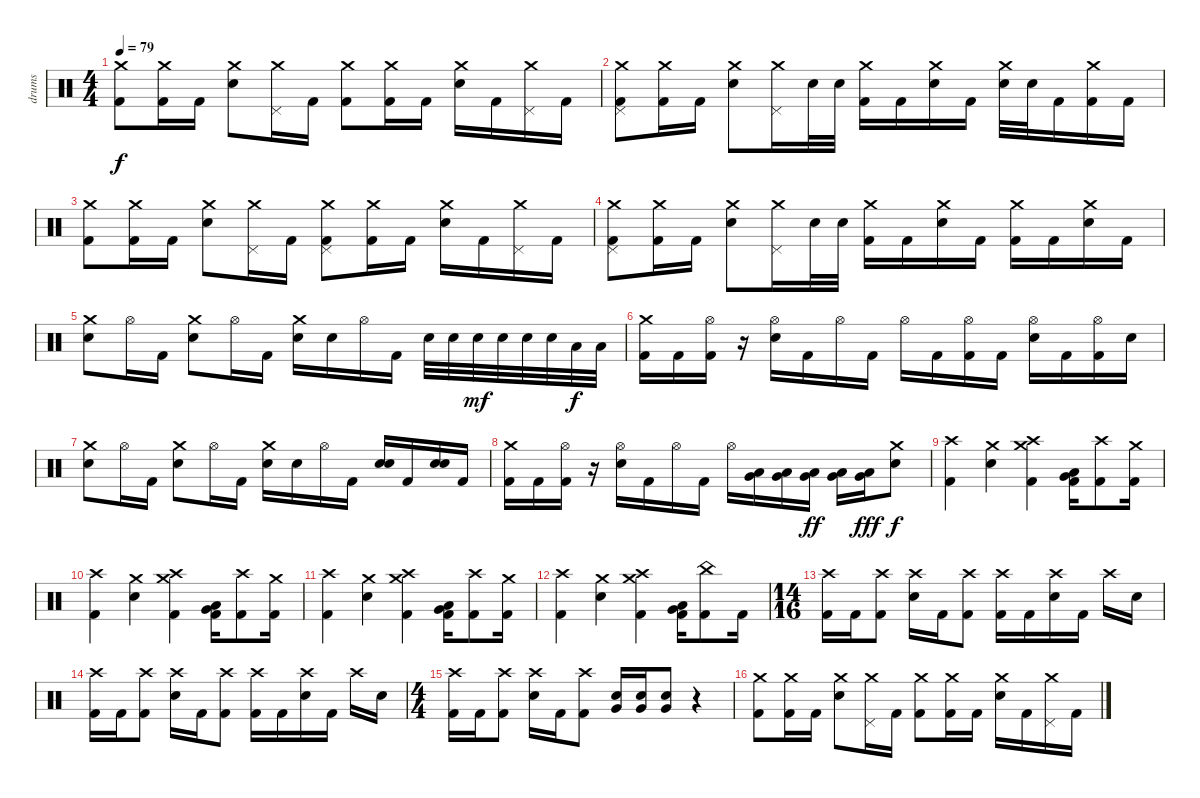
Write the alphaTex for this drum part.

\track ("drums" "drums") {instrument percussion}
\staff {score}
\articulation defaults
\ts (4 4)
\tempo 79
\clef neutral
\ks c
("Crash medium (hit)" "Kick (hit) 2").8{dy f} ("Crash medium (hit)" "Kick (hit) 2").16 "Kick (hit) 2".16 ("Crash medium (hit)" "Electric Snare (hit)").8 ("Crash medium (hit)" "Pedal Hi-Hat (hit)").16 "Kick (hit) 2".16 ("Crash medium (hit)" "Kick (hit) 2").8 ("Crash medium (hit)" "Kick (hit) 2").16 "Kick (hit) 2".16 ("Crash medium (hit)" "Electric Snare (hit)").16 "Kick (hit) 2".16 ("Crash medium (hit)" "Pedal Hi-Hat (hit)").16 "Kick (hit) 2".16 |
("Crash medium (hit)" "Pedal Hi-Hat (hit)" "Kick (hit) 2").8 ("Crash medium (hit)" "Kick (hit) 2").16 "Kick (hit) 2".16 ("Crash medium (hit)" "Electric Snare (hit)").8 ("Crash medium (hit)" "Pedal Hi-Hat (hit)").16 "Electric Snare (hit)".32 "Electric Snare (hit)".32 ("Crash medium (hit)" "Kick (hit) 2").16 "Kick (hit) 2".16 ("Crash medium (hit)" "Electric Snare (hit)").16 "Kick (hit) 2".16 ("Crash medium (hit)" "Electric Snare (hit)").32 "Electric Snare (hit)".32 "Kick (hit) 2".16 ("Crash medium (hit)" "Kick (hit) 2").16 "Kick (hit) 2".16 |
("Crash medium (hit)" "Kick (hit) 2").8 ("Crash medium (hit)" "Kick (hit) 2").16 "Kick (hit) 2".16 ("Crash medium (hit)" "Electric Snare (hit)").8 ("Crash medium (hit)" "Pedal Hi-Hat (hit)").16 "Kick (hit) 2".16 ("Crash medium (hit)" "Pedal Hi-Hat (hit)" "Kick (hit) 2").8 ("Crash medium (hit)" "Kick (hit) 2").16 "Kick (hit) 2".16 ("Crash medium (hit)" "Electric Snare (hit)").16 "Kick (hit) 2".16 ("Crash medium (hit)" "Pedal Hi-Hat (hit)").16 "Kick (hit) 2".16 |
("Crash medium (hit)" "Pedal Hi-Hat (hit)" "Kick (hit) 2").8 ("Crash medium (hit)" "Kick (hit) 2").16 "Kick (hit) 2".16 ("Crash medium (hit)" "Electric Snare (hit)").8 ("Crash medium (hit)" "Pedal Hi-Hat (hit)").16 "Electric Snare (hit)".32 "Electric Snare (hit)".32 ("Crash medium (hit)" "Kick (hit) 2").16 "Kick (hit) 2".16 ("Crash medium (hit)" "Electric Snare (hit)").16 "Kick (hit) 2".16 ("Crash medium (hit)" "Kick (hit) 2").16 "Kick (hit) 2".16 ("Crash medium (hit)" "Electric Snare (hit)").16 "Kick (hit) 2".16 |
("Crash medium (hit)" "Electric Snare (hit)").8 "Hi-Hat (open)".16 "Kick (hit) 2".16 ("Crash medium (hit)" "Electric Snare (hit)").8 "Hi-Hat (open)".16 "Kick (hit) 2".16 ("Crash medium (hit)" "Electric Snare (hit)").16 "Electric Snare (hit)".16 "Hi-Hat (open)".16 "Kick (hit) 2".16 "Electric Snare (hit)".32 "Electric Snare (hit)".32 "Electric Snare (hit)".32{dy mf} "Electric Snare (hit)".32 "Electric Snare (hit)".32 "Electric Snare (hit)".32 "Low Tom (hit)".32{dy f} "Low Tom (hit)".32 |
("Crash medium (hit)" "Kick (hit) 2").16 "Kick (hit) 2".16 ("Hi-Hat (open)" "Kick (hit) 2").16 r.16 ("Hi-Hat (open)" "Electric Snare (hit)").16 "Kick (hit) 2".16 "Hi-Hat (open)".16 "Kick (hit) 2".16 "Hi-Hat (open)".16 "Kick (hit) 2".16 ("Hi-Hat (open)" "Kick (hit) 2").16 "Kick (hit) 2".16 ("Hi-Hat (open)" "Electric Snare (hit)").16 "Kick (hit) 2".16 ("Hi-Hat (open)" "Kick (hit) 2").16 "Electric Snare (hit)".16 |
("Crash medium (hit)" "Electric Snare (hit)").8 "Hi-Hat (open)".16 "Kick (hit) 2".16 ("Crash medium (hit)" "Electric Snare (hit)").8 "Hi-Hat (open)".16 "Kick (hit) 2".16 ("Crash medium (hit)" "Electric Snare (hit)").16 "Electric Snare (hit)".16 "Hi-Hat (open)".16 "Kick (hit) 2".16 ("Electric Snare (hit)" "Electric Snare (hit)").16{bd 120} "Kick (hit) 2".16 ("Electric Snare (hit)" "Electric Snare (hit)").16{bd 120} "Kick (hit) 2".16 |
("Crash medium (hit)" "Kick (hit) 2").16 "Kick (hit) 2".16 ("Hi-Hat (open)" "Kick (hit) 2").16 r.16 ("Hi-Hat (open)" "Electric Snare (hit)").16 "Kick (hit) 2".16 "Hi-Hat (open)".16 "Kick (hit) 2".16 "Hi-Hat (open)".16 ("Low Tom (hit)" "Very Low Tom (hit)").16 ("Low Tom (hit)" "Very Low Tom (hit)").16 ("Low Tom (hit)" "Very Low Tom (hit)").16{dy ff} ("Low Tom (hit)" "Very Low Tom (hit)").16 ("Low Tom (hit)" "Very Low Tom (hit)").16{dy fff} ("Crash medium (hit)" "Electric Snare (hit)").8{dy f} |
("Crash high (hit)" "Kick (hit) 2").4 ("Crash medium (hit)" "Electric Snare (hit)").4 ("Crash high (hit)" "Crash medium (hit)" "Kick (hit) 2").4 ("Very Low Tom (hit)" "Low Tom (hit)" "Kick (hit) 2").16 ("Crash high (hit)" "Kick (hit) 2").8 ("Crash medium (hit)" "Kick (hit) 2").16 |
("Crash high (hit)" "Kick (hit) 2").4 ("Crash medium (hit)" "Electric Snare (hit)").4 ("Crash high (hit)" "Crash medium (hit)" "Kick (hit) 2").4 ("Very Low Tom (hit)" "Low Tom (hit)" "Kick (hit) 2").16 ("Crash high (hit)" "Kick (hit) 2").8 ("Crash medium (hit)" "Kick (hit) 2").16 |
("Crash high (hit)" "Kick (hit) 2").4 ("Crash medium (hit)" "Electric Snare (hit)").4 ("Crash high (hit)" "Crash medium (hit)" "Kick (hit) 2").4 ("Very Low Tom (hit)" "Low Tom (hit)" "Kick (hit) 2").16 ("Crash high (hit)" "Kick (hit) 2").8 ("Crash medium (hit)" "Kick (hit) 2").16 |
("Crash high (hit)" "Kick (hit) 2").4 ("Crash medium (hit)" "Electric Snare (hit)").4 ("Crash high (hit)" "Crash medium (hit)" "Kick (hit) 2").4 ("Very Low Tom (hit)" "Low Tom (hit)" "Kick (hit) 2").16 ("China (hit)" "Kick (hit) 2").8 "Kick (hit) 2".16 |
\ts (14 16)
("Crash high (hit)" "Kick (hit) 2").16 "Kick (hit) 2".16 ("Crash high (hit)" "Kick (hit) 2").8 ("Crash high (hit)" "Electric Snare (hit)").16 "Kick (hit) 2".16 ("Crash high (hit)" "Kick (hit) 2").8 ("Crash high (hit)" "Kick (hit) 2").16 "Kick (hit) 2".16 ("Crash high (hit)" "Electric Snare (hit)").16 "Kick (hit) 2".16 "Crash high (hit)".16 "Electric Snare (hit)".16 |
("Crash high (hit)" "Kick (hit) 2").16 "Kick (hit) 2".16 ("Crash high (hit)" "Kick (hit) 2").8 ("Crash high (hit)" "Electric Snare (hit)").16 "Kick (hit) 2".16 ("Crash high (hit)" "Kick (hit) 2").8 ("Crash high (hit)" "Kick (hit) 2").16 "Kick (hit) 2".16 ("Crash high (hit)" "Electric Snare (hit)").16 "Kick (hit) 2".16 "Crash high (hit)".16 "Electric Snare (hit)".16 |
\ts (4 4)
("Crash high (hit)" "Kick (hit) 2").16 "Kick (hit) 2".16 ("Crash high (hit)" "Kick (hit) 2").8 ("Crash high (hit)" "Electric Snare (hit)").16 "Kick (hit) 2".16 ("Crash high (hit)" "Kick (hit) 2").8 ("Very Low Tom (hit)" "Electric Snare (hit)").16 ("Very Low Tom (hit)" "Electric Snare (hit)").16 ("Very Low Tom (hit)" "Electric Snare (hit)").8 r.4 |
("Crash medium (hit)" "Kick (hit) 2").8 ("Crash medium (hit)" "Kick (hit) 2").16 "Kick (hit) 2".16 ("Crash medium (hit)" "Electric Snare (hit)").8 ("Crash medium (hit)" "Pedal Hi-Hat (hit)").16 "Kick (hit) 2".16 ("Crash medium (hit)" "Kick (hit) 2").8 ("Crash medium (hit)" "Kick (hit) 2").16 "Kick (hit) 2".16 ("Crash medium (hit)" "Electric Snare (hit)").16 "Kick (hit) 2".16 ("Crash medium (hit)" "Pedal Hi-Hat (hit)").16 "Kick (hit) 2".16
